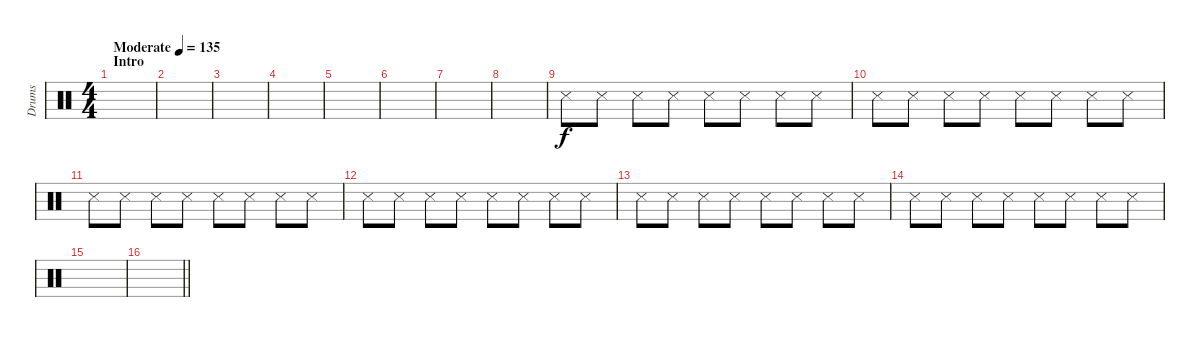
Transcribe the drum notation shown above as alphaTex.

\track ("Drums" "Drums") {instrument percussion}
\staff {score}
\articulation defaults
\ts (4 4)
\section ("" "Intro")
\tempo (135 "Moderate")
\clef neutral
\ks c
|
|
|
|
|
|
|
|
"Snare (side stick) 3".8 "Metronome (hit)".8 "Snare (side stick) 3".8 "Metronome (hit)".8 "Snare (side stick) 3".8 "Metronome (hit)".8 "Snare (side stick) 3".8 "Metronome (hit)".8 |
"Snare (side stick) 3".8 "Metronome (hit)".8 "Snare (side stick) 3".8 "Metronome (hit)".8 "Snare (side stick) 3".8 "Metronome (hit)".8 "Snare (side stick) 3".8 "Metronome (hit)".8 |
"Snare (side stick) 3".8 "Metronome (hit)".8 "Snare (side stick) 3".8 "Metronome (hit)".8 "Snare (side stick) 3".8 "Metronome (hit)".8 "Snare (side stick) 3".8 "Metronome (hit)".8 |
"Snare (side stick) 3".8 "Metronome (hit)".8 "Snare (side stick) 3".8 "Metronome (hit)".8 "Snare (side stick) 3".8 "Metronome (hit)".8 "Snare (side stick) 3".8 "Metronome (hit)".8 |
"Snare (side stick) 3".8 "Metronome (hit)".8 "Snare (side stick) 3".8 "Metronome (hit)".8 "Snare (side stick) 3".8 "Metronome (hit)".8 "Snare (side stick) 3".8 "Metronome (hit)".8 |
"Snare (side stick) 3".8 "Metronome (hit)".8 "Snare (side stick) 3".8 "Metronome (hit)".8 "Snare (side stick) 3".8 "Metronome (hit)".8 "Snare (side stick) 3".8 "Metronome (hit)".8 |
|
\barLineRight lightlight
